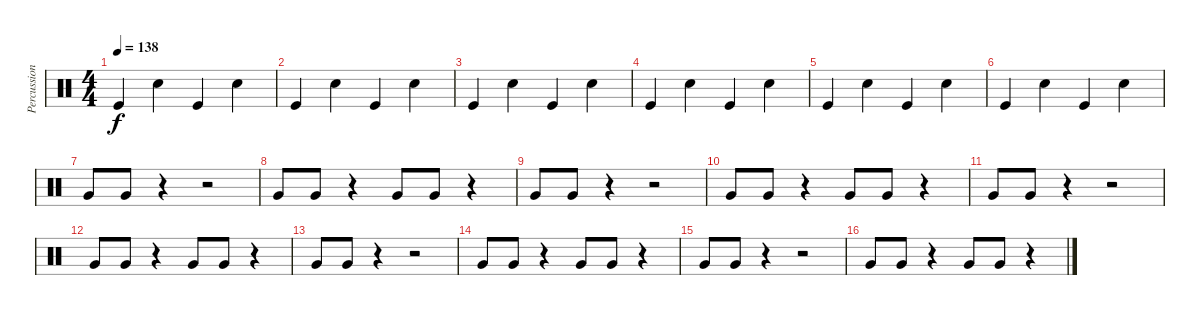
\track ("Percussion" "Percussion") {instrument percussion}
\staff {score}
\articulation defaults
\ts (4 4)
\tempo 138
\clef neutral
\ks c "Kick (hit)".4{dy f} "Snare (hit) 2".4 "Kick (hit)".4 "Snare (hit) 2".4
|
"Kick (hit)".4 "Snare (hit) 2".4 "Kick (hit)".4 "Snare (hit) 2".4 |
"Kick (hit)".4 "Snare (hit) 2".4 "Kick (hit)".4 "Snare (hit) 2".4 |
"Kick (hit)".4 "Snare (hit) 2".4 "Kick (hit)".4 "Snare (hit) 2".4 |
"Kick (hit)".4 "Snare (hit) 2".4 "Kick (hit)".4 "Snare (hit) 2".4 |
"Kick (hit)".4 "Snare (hit) 2".4 "Kick (hit)".4 "Snare (hit) 2".4 |
"Very Low Tom (hit)".8 "Very Low Tom (hit)".8 r.4 r.2 |
"Very Low Tom (hit)".8 "Very Low Tom (hit)".8 r.4 "Very Low Tom (hit)".8 "Very Low Tom (hit)".8 r.4 |
"Very Low Tom (hit)".8 "Very Low Tom (hit)".8 r.4 r.2 |
"Very Low Tom (hit)".8 "Very Low Tom (hit)".8 r.4 "Very Low Tom (hit)".8 "Very Low Tom (hit)".8 r.4 |
"Very Low Tom (hit)".8 "Very Low Tom (hit)".8 r.4 r.2 |
"Very Low Tom (hit)".8 "Very Low Tom (hit)".8 r.4 "Very Low Tom (hit)".8 "Very Low Tom (hit)".8 r.4 |
"Very Low Tom (hit)".8 "Very Low Tom (hit)".8 r.4 r.2 |
"Very Low Tom (hit)".8 "Very Low Tom (hit)".8 r.4 "Very Low Tom (hit)".8 "Very Low Tom (hit)".8 r.4 |
"Very Low Tom (hit)".8 "Very Low Tom (hit)".8 r.4 r.2 |
"Very Low Tom (hit)".8 "Very Low Tom (hit)".8 r.4 "Very Low Tom (hit)".8 "Very Low Tom (hit)".8 r.4
